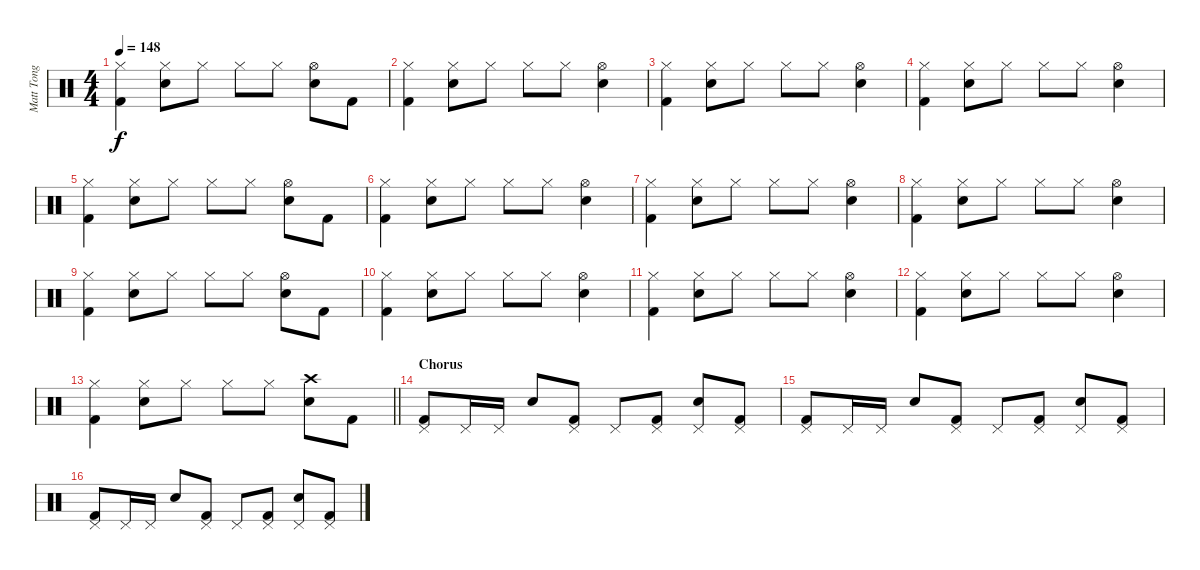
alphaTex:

\track ("Matt Tong" "Matt Tong") {instrument percussion}
\staff {score}
\articulation defaults
\ts (4 4)
\tempo 148
\clef neutral
\ks c
("Hi-Hat (closed)" "Kick (hit) 2").4{dy f} ("Hi-Hat (closed)" "Electric Snare (hit)").8 "Hi-Hat (closed)".8 "Hi-Hat (closed)".8 "Hi-Hat (closed)".8 ("Hi-Hat (open)" "Electric Snare (hit)").8 "Kick (hit) 2".8 |
("Hi-Hat (closed)" "Kick (hit) 2").4 ("Hi-Hat (closed)" "Electric Snare (hit)").8 "Hi-Hat (closed)".8 "Hi-Hat (closed)".8 "Hi-Hat (closed)".8 ("Hi-Hat (open)" "Electric Snare (hit)").4 |
("Hi-Hat (closed)" "Kick (hit) 2").4 ("Hi-Hat (closed)" "Electric Snare (hit)").8 "Hi-Hat (closed)".8 "Hi-Hat (closed)".8 "Hi-Hat (closed)".8 ("Hi-Hat (open)" "Electric Snare (hit)").4 |
("Hi-Hat (closed)" "Kick (hit) 2").4 ("Hi-Hat (closed)" "Electric Snare (hit)").8 "Hi-Hat (closed)".8 "Hi-Hat (closed)".8 "Hi-Hat (closed)".8 ("Hi-Hat (open)" "Electric Snare (hit)").4 |
("Hi-Hat (closed)" "Kick (hit) 2").4 ("Hi-Hat (closed)" "Electric Snare (hit)").8 "Hi-Hat (closed)".8 "Hi-Hat (closed)".8 "Hi-Hat (closed)".8 ("Hi-Hat (open)" "Electric Snare (hit)").8 "Kick (hit) 2".8 |
("Hi-Hat (closed)" "Kick (hit) 2").4 ("Hi-Hat (closed)" "Electric Snare (hit)").8 "Hi-Hat (closed)".8 "Hi-Hat (closed)".8 "Hi-Hat (closed)".8 ("Hi-Hat (open)" "Electric Snare (hit)").4 |
("Hi-Hat (closed)" "Kick (hit) 2").4 ("Hi-Hat (closed)" "Electric Snare (hit)").8 "Hi-Hat (closed)".8 "Hi-Hat (closed)".8 "Hi-Hat (closed)".8 ("Hi-Hat (open)" "Electric Snare (hit)").4 |
("Hi-Hat (closed)" "Kick (hit) 2").4 ("Hi-Hat (closed)" "Electric Snare (hit)").8 "Hi-Hat (closed)".8 "Hi-Hat (closed)".8 "Hi-Hat (closed)".8 ("Hi-Hat (open)" "Electric Snare (hit)").4 |
("Hi-Hat (closed)" "Kick (hit) 2").4 ("Hi-Hat (closed)" "Electric Snare (hit)").8 "Hi-Hat (closed)".8 "Hi-Hat (closed)".8 "Hi-Hat (closed)".8 ("Hi-Hat (open)" "Electric Snare (hit)").8 "Kick (hit) 2".8 |
("Hi-Hat (closed)" "Kick (hit) 2").4 ("Hi-Hat (closed)" "Electric Snare (hit)").8 "Hi-Hat (closed)".8 "Hi-Hat (closed)".8 "Hi-Hat (closed)".8 ("Hi-Hat (open)" "Electric Snare (hit)").4 |
("Hi-Hat (closed)" "Kick (hit) 2").4 ("Hi-Hat (closed)" "Electric Snare (hit)").8 "Hi-Hat (closed)".8 "Hi-Hat (closed)".8 "Hi-Hat (closed)".8 ("Hi-Hat (open)" "Electric Snare (hit)").4 |
("Hi-Hat (closed)" "Kick (hit) 2").4 ("Hi-Hat (closed)" "Electric Snare (hit)").8 "Hi-Hat (closed)".8 "Hi-Hat (closed)".8 "Hi-Hat (closed)".8 ("Hi-Hat (open)" "Electric Snare (hit)").4 |
\barLineRight lightlight
("Hi-Hat (closed)" "Kick (hit) 2").4 ("Hi-Hat (closed)" "Electric Snare (hit)").8 "Hi-Hat (closed)".8 "Hi-Hat (closed)".8 "Hi-Hat (closed)".8 ("Crash high (hit)" "Electric Snare (hit)").8 "Kick (hit) 2".8 |
\section ("" "Chorus")
("Pedal Hi-Hat (hit)" "Kick (hit) 2").8 "Pedal Hi-Hat (hit)".16 "Pedal Hi-Hat (hit)".16 "Electric Snare (hit)".8 ("Pedal Hi-Hat (hit)" "Kick (hit) 2").8 "Pedal Hi-Hat (hit)".8 ("Pedal Hi-Hat (hit)" "Kick (hit) 2").8 ("Pedal Hi-Hat (hit)" "Electric Snare (hit)").8 ("Pedal Hi-Hat (hit)" "Kick (hit) 2").8 |
("Pedal Hi-Hat (hit)" "Kick (hit) 2").8 "Pedal Hi-Hat (hit)".16 "Pedal Hi-Hat (hit)".16 "Electric Snare (hit)".8 ("Pedal Hi-Hat (hit)" "Kick (hit) 2").8 "Pedal Hi-Hat (hit)".8 ("Pedal Hi-Hat (hit)" "Kick (hit) 2").8 ("Pedal Hi-Hat (hit)" "Electric Snare (hit)").8 ("Pedal Hi-Hat (hit)" "Kick (hit) 2").8 |
("Pedal Hi-Hat (hit)" "Kick (hit) 2").8 "Pedal Hi-Hat (hit)".16 "Pedal Hi-Hat (hit)".16 "Electric Snare (hit)".8 ("Pedal Hi-Hat (hit)" "Kick (hit) 2").8 "Pedal Hi-Hat (hit)".8 ("Pedal Hi-Hat (hit)" "Kick (hit) 2").8 ("Pedal Hi-Hat (hit)" "Electric Snare (hit)").8 ("Pedal Hi-Hat (hit)" "Kick (hit) 2").8
